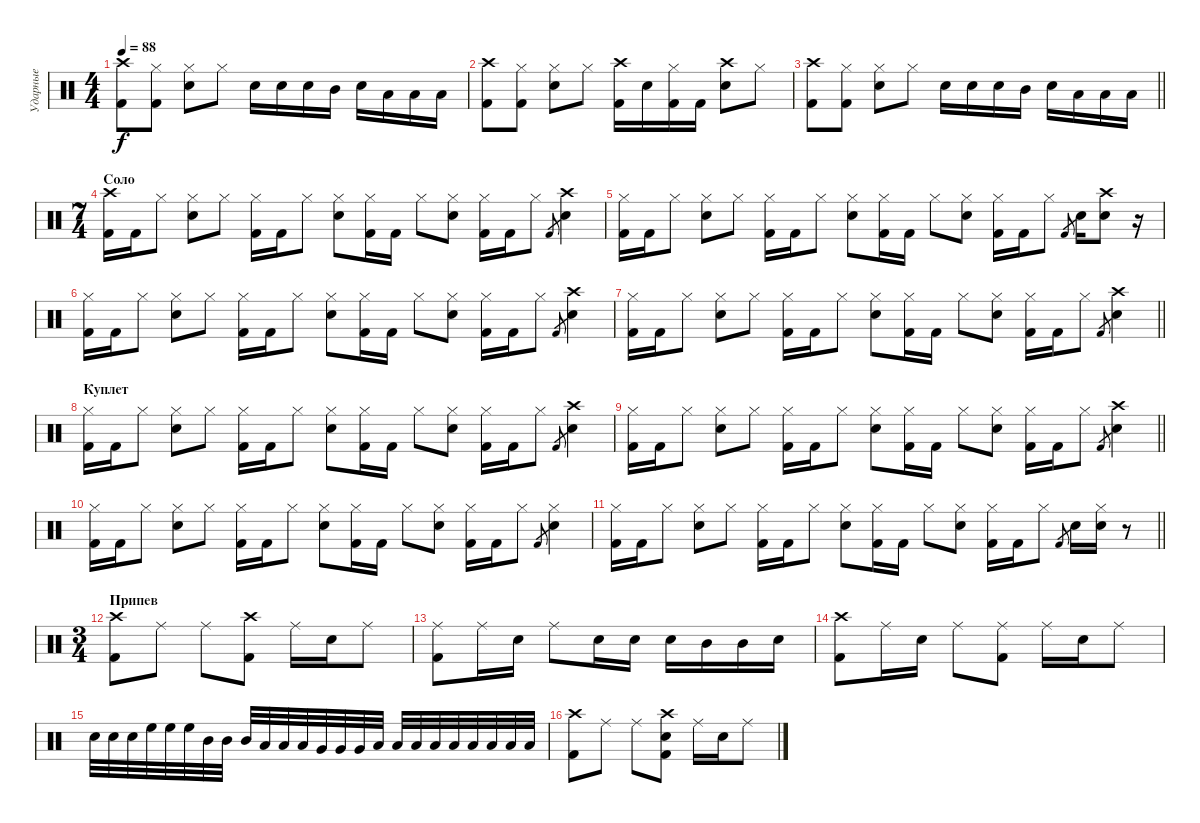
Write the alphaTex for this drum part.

\track ("Ударные" "Ударные") {instrument percussion}
\staff {score}
\articulation defaults
\ts (4 4)
\tempo 88
\clef neutral
\ks c
("Crash high (hit)" "Kick (hit) 2").8{dy f} ("Hi-Hat (closed)" "Kick (hit) 2").8 ("Hi-Hat (closed)" "Snare (hit) 2").8 "Hi-Hat (closed)".8 "Snare (hit) 2".16 "Snare (hit) 2".16 "Snare (hit) 2".16 "Mid Tom (hit)".16 "Snare (hit) 2".16 "Low Tom (hit)".16 "Low Tom (hit)".16 "Low Tom (hit)".16 |
("Crash high (hit)" "Kick (hit) 2").8 ("Hi-Hat (closed)" "Kick (hit) 2").8 ("Hi-Hat (closed)" "Snare (hit) 2").8 "Hi-Hat (closed)".8 ("Crash high (hit)" "Kick (hit) 2").16 "Snare (hit) 2".16 ("Hi-Hat (closed)" "Kick (hit) 2").16 "Kick (hit) 2".16 ("Crash high (hit)" "Snare (hit) 2").8 "Hi-Hat (closed)".8 |
\barLineRight lightlight
("Crash high (hit)" "Kick (hit) 2").8 ("Hi-Hat (closed)" "Kick (hit) 2").8 ("Hi-Hat (closed)" "Snare (hit) 2").8 "Hi-Hat (closed)".8 "Snare (hit) 2".16 "Snare (hit) 2".16 "Snare (hit) 2".16 "Mid Tom (hit)".16 "Snare (hit) 2".16 "Low Tom (hit)".16 "Low Tom (hit)".16 "Low Tom (hit)".16 |
\ts (7 4)
\section ("" "Соло")
("Crash high (hit)" "Kick (hit) 2").16 "Kick (hit) 2".16 "Hi-Hat (closed)".8 ("Hi-Hat (closed)" "Snare (hit) 2").8 "Hi-Hat (closed)".8 ("Hi-Hat (closed)" "Kick (hit) 2").16 "Kick (hit) 2".16 "Hi-Hat (closed)".8 ("Hi-Hat (closed)" "Snare (hit) 2").8 ("Hi-Hat (closed)" "Kick (hit) 2").16 "Kick (hit) 2".16 "Hi-Hat (closed)".8 ("Hi-Hat (closed)" "Snare (hit) 2").8 ("Hi-Hat (closed)" "Kick (hit) 2").16 "Kick (hit) 2".16 "Hi-Hat (closed)".8 "Kick (hit) 2".8{gr} ("Crash high (hit)" "Snare (hit) 2").4 |
("Hi-Hat (closed)" "Kick (hit) 2").16 "Kick (hit) 2".16 "Hi-Hat (closed)".8 ("Hi-Hat (closed)" "Snare (hit) 2").8 "Hi-Hat (closed)".8 ("Hi-Hat (closed)" "Kick (hit) 2").16 "Kick (hit) 2".16 "Hi-Hat (closed)".8 ("Hi-Hat (closed)" "Snare (hit) 2").8 ("Hi-Hat (closed)" "Kick (hit) 2").16 "Kick (hit) 2".16 "Hi-Hat (closed)".8 ("Hi-Hat (closed)" "Snare (hit) 2").8 ("Hi-Hat (closed)" "Kick (hit) 2").16 "Kick (hit) 2".16 "Hi-Hat (closed)".8 "Kick (hit) 2".8{gr} "Snare (hit) 2".16 ("Crash high (hit)" "Snare (hit) 2").8 r.16 |
("Hi-Hat (closed)" "Kick (hit) 2").16 "Kick (hit) 2".16 "Hi-Hat (closed)".8 ("Hi-Hat (closed)" "Snare (hit) 2").8 "Hi-Hat (closed)".8 ("Hi-Hat (closed)" "Kick (hit) 2").16 "Kick (hit) 2".16 "Hi-Hat (closed)".8 ("Hi-Hat (closed)" "Snare (hit) 2").8 ("Hi-Hat (closed)" "Kick (hit) 2").16 "Kick (hit) 2".16 "Hi-Hat (closed)".8 ("Hi-Hat (closed)" "Snare (hit) 2").8 ("Hi-Hat (closed)" "Kick (hit) 2").16 "Kick (hit) 2".16 "Hi-Hat (closed)".8 "Kick (hit) 2".8{gr} ("Crash high (hit)" "Snare (hit) 2").4 |
\barLineRight lightlight
("Hi-Hat (closed)" "Kick (hit) 2").16 "Kick (hit) 2".16 "Hi-Hat (closed)".8 ("Hi-Hat (closed)" "Snare (hit) 2").8 "Hi-Hat (closed)".8 ("Hi-Hat (closed)" "Kick (hit) 2").16 "Kick (hit) 2".16 "Hi-Hat (closed)".8 ("Hi-Hat (closed)" "Snare (hit) 2").8 ("Hi-Hat (closed)" "Kick (hit) 2").16 "Kick (hit) 2".16 "Hi-Hat (closed)".8 ("Hi-Hat (closed)" "Snare (hit) 2").8 ("Hi-Hat (closed)" "Kick (hit) 2").16 "Kick (hit) 2".16 "Hi-Hat (closed)".8 "Kick (hit) 2".8{gr} ("Crash high (hit)" "Snare (hit) 2").4 |
\section ("" "Куплет")
("Hi-Hat (closed)" "Kick (hit) 2").16 "Kick (hit) 2".16 "Hi-Hat (closed)".8 ("Hi-Hat (closed)" "Snare (hit) 2").8 "Hi-Hat (closed)".8 ("Hi-Hat (closed)" "Kick (hit) 2").16 "Kick (hit) 2".16 "Hi-Hat (closed)".8 ("Hi-Hat (closed)" "Snare (hit) 2").8 ("Hi-Hat (closed)" "Kick (hit) 2").16 "Kick (hit) 2".16 "Hi-Hat (closed)".8 ("Hi-Hat (closed)" "Snare (hit) 2").8 ("Hi-Hat (closed)" "Kick (hit) 2").16 "Kick (hit) 2".16 "Hi-Hat (closed)".8 "Kick (hit) 2".8{gr} ("Crash high (hit)" "Snare (hit) 2").4 |
\barLineRight lightlight
("Hi-Hat (closed)" "Kick (hit) 2").16 "Kick (hit) 2".16 "Hi-Hat (closed)".8 ("Hi-Hat (closed)" "Snare (hit) 2").8 "Hi-Hat (closed)".8 ("Hi-Hat (closed)" "Kick (hit) 2").16 "Kick (hit) 2".16 "Hi-Hat (closed)".8 ("Hi-Hat (closed)" "Snare (hit) 2").8 ("Hi-Hat (closed)" "Kick (hit) 2").16 "Kick (hit) 2".16 "Hi-Hat (closed)".8 ("Hi-Hat (closed)" "Snare (hit) 2").8 ("Hi-Hat (closed)" "Kick (hit) 2").16 "Kick (hit) 2".16 "Hi-Hat (closed)".8 "Kick (hit) 2".8{gr} ("Crash high (hit)" "Snare (hit) 2").4 |
("Hi-Hat (closed)" "Kick (hit) 2").16 "Kick (hit) 2".16 "Hi-Hat (closed)".8 ("Hi-Hat (closed)" "Snare (hit) 2").8 "Hi-Hat (closed)".8 ("Hi-Hat (closed)" "Kick (hit) 2").16 "Kick (hit) 2".16 "Hi-Hat (closed)".8 ("Hi-Hat (closed)" "Snare (hit) 2").8 ("Hi-Hat (closed)" "Kick (hit) 2").16 "Kick (hit) 2".16 "Hi-Hat (closed)".8 ("Hi-Hat (closed)" "Snare (hit) 2").8 ("Hi-Hat (closed)" "Kick (hit) 2").16 "Kick (hit) 2".16 "Hi-Hat (closed)".8 "Kick (hit) 2".8{gr} ("Hi-Hat (closed)" "Snare (hit) 2").4 |
\barLineRight lightlight
("Hi-Hat (closed)" "Kick (hit) 2").16 "Kick (hit) 2".16 "Hi-Hat (closed)".8 ("Hi-Hat (closed)" "Snare (hit) 2").8 "Hi-Hat (closed)".8 ("Hi-Hat (closed)" "Kick (hit) 2").16 "Kick (hit) 2".16 "Hi-Hat (closed)".8 ("Hi-Hat (closed)" "Snare (hit) 2").8 ("Hi-Hat (closed)" "Kick (hit) 2").16 "Kick (hit) 2".16 "Hi-Hat (closed)".8 ("Hi-Hat (closed)" "Snare (hit) 2").8 ("Hi-Hat (closed)" "Kick (hit) 2").16 "Kick (hit) 2".16 "Hi-Hat (closed)".8 "Kick (hit) 2".8{gr} "Snare (hit) 2".16 ("Hi-Hat (closed)" "Snare (hit) 2").16 r.8 |
\ts (3 4)
\section ("" "Припев")
("Crash high (hit)" "Kick (hit) 2").8 "Ride (middle)".8 "Ride (middle)".8 ("Crash high (hit)" "Kick (hit) 2").8 "Ride (middle)".16 "Snare (hit) 2".16 "Ride (middle)".8 |
("Ride (middle)" "Kick (hit) 2").8 "Ride (middle)".16 "Snare (hit) 2".16 "Ride (middle)".8 "Snare (hit) 2".16 "Snare (hit) 2".16 "Snare (hit) 2".16 "Mid Tom (hit)".16 "Mid Tom (hit)".16 "Snare (hit) 2".16 |
("Crash high (hit)" "Kick (hit) 2").8 "Ride (middle)".16 "Snare (hit) 2".16 "Ride (middle)".8 ("Ride (middle)" "Kick (hit) 2").8 "Ride (middle)".16 "Snare (hit) 2".16 "Ride (middle)".8 |
"Snare (hit) 2".32 "Snare (hit) 2".32 "Snare (hit) 2".32 "High Floor Tom (hit)".32 "High Floor Tom (hit)".32 "High Floor Tom (hit)".32 "Mid Tom (hit)".32 "Mid Tom (hit)".32 "Mid Tom (hit)".32 "Low Tom (hit)".32 "Low Tom (hit)".32 "Low Tom (hit)".32 "Very Low Tom (hit)".32 "Very Low Tom (hit)".32 "Very Low Tom (hit)".32 "Low Floor Tom (hit)".32 "Low Floor Tom (hit)".32 "Low Floor Tom (hit)".32 "Low Floor Tom (hit)".32 "Low Floor Tom (hit)".32 "Low Floor Tom (hit)".32 "Low Floor Tom (hit)".32 "Low Floor Tom (hit)".32 "Low Floor Tom (hit)".32 |
("Crash high (hit)" "Kick (hit) 2").8 "Ride (middle)".8 "Ride (middle)".8 ("Crash high (hit)" "Snare (hit) 2" "Kick (hit) 2").8 "Ride (middle)".16 "Snare (hit) 2".16 "Ride (middle)".8
